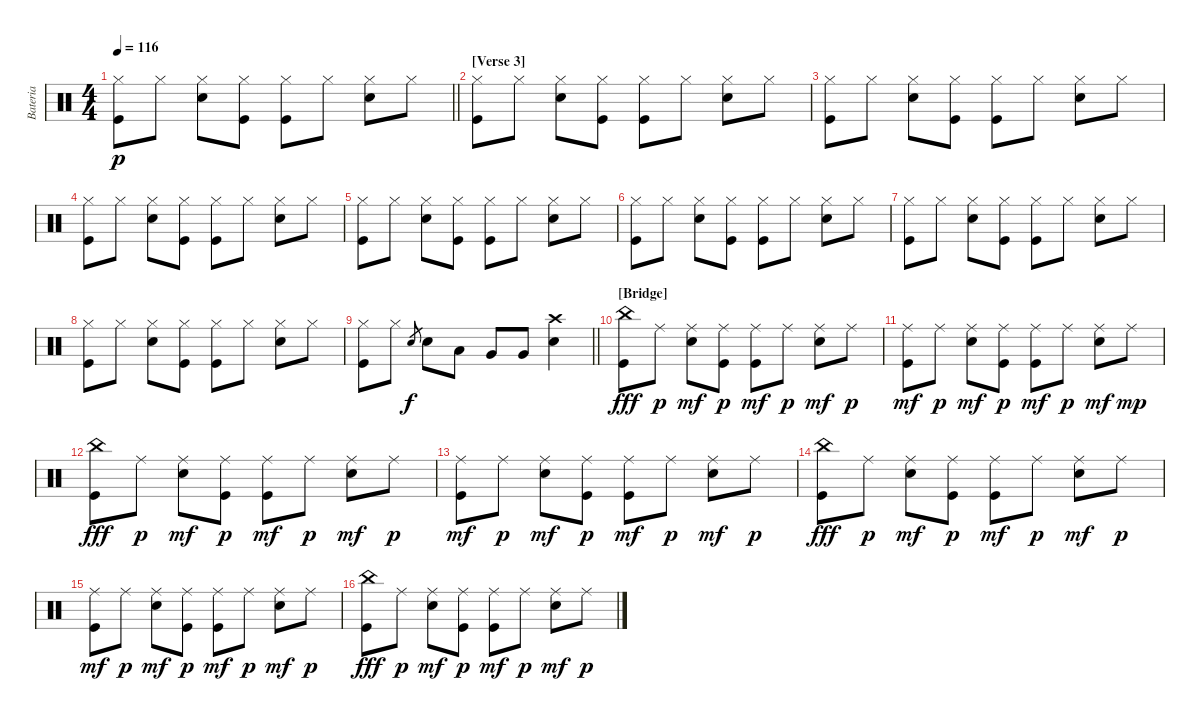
\track ("Bateria" "Bateria") {instrument percussion}
\staff {score}
\articulation defaults
\ts (4 4)
\tempo 116
\clef neutral
\barLineRight lightlight
\ks c
("Hi-Hat (closed)" "Kick (hit)").8{dy p} "Hi-Hat (closed)".8 ("Hi-Hat (closed)" "Snare (hit) 2").8 ("Hi-Hat (closed)" "Kick (hit)").8 ("Hi-Hat (closed)" "Kick (hit)").8 "Hi-Hat (closed)".8 ("Hi-Hat (closed)" "Snare (hit) 2").8 "Hi-Hat (closed)".8 |
\section ("" "[Verse 3]")
("Hi-Hat (closed)" "Kick (hit)").8 "Hi-Hat (closed)".8 ("Hi-Hat (closed)" "Snare (hit) 2").8 ("Hi-Hat (closed)" "Kick (hit)").8 ("Hi-Hat (closed)" "Kick (hit)").8 "Hi-Hat (closed)".8 ("Hi-Hat (closed)" "Snare (hit) 2").8 "Hi-Hat (closed)".8 |
("Hi-Hat (closed)" "Kick (hit)").8 "Hi-Hat (closed)".8 ("Hi-Hat (closed)" "Snare (hit) 2").8 ("Hi-Hat (closed)" "Kick (hit)").8 ("Hi-Hat (closed)" "Kick (hit)").8 "Hi-Hat (closed)".8 ("Hi-Hat (closed)" "Snare (hit) 2").8 "Hi-Hat (closed)".8 |
("Hi-Hat (closed)" "Kick (hit)").8 "Hi-Hat (closed)".8 ("Hi-Hat (closed)" "Snare (hit) 2").8 ("Hi-Hat (closed)" "Kick (hit)").8 ("Hi-Hat (closed)" "Kick (hit)").8 "Hi-Hat (closed)".8 ("Hi-Hat (closed)" "Snare (hit) 2").8 "Hi-Hat (closed)".8 |
("Hi-Hat (closed)" "Kick (hit)").8 "Hi-Hat (closed)".8 ("Hi-Hat (closed)" "Snare (hit) 2").8 ("Hi-Hat (closed)" "Kick (hit)").8 ("Hi-Hat (closed)" "Kick (hit)").8 "Hi-Hat (closed)".8 ("Hi-Hat (closed)" "Snare (hit) 2").8 "Hi-Hat (closed)".8 |
("Hi-Hat (closed)" "Kick (hit)").8 "Hi-Hat (closed)".8 ("Hi-Hat (closed)" "Snare (hit) 2").8 ("Hi-Hat (closed)" "Kick (hit)").8 ("Hi-Hat (closed)" "Kick (hit)").8 "Hi-Hat (closed)".8 ("Hi-Hat (closed)" "Snare (hit) 2").8 "Hi-Hat (closed)".8 |
("Hi-Hat (closed)" "Kick (hit)").8 "Hi-Hat (closed)".8 ("Hi-Hat (closed)" "Snare (hit) 2").8 ("Hi-Hat (closed)" "Kick (hit)").8 ("Hi-Hat (closed)" "Kick (hit)").8 "Hi-Hat (closed)".8 ("Hi-Hat (closed)" "Snare (hit) 2").8 "Hi-Hat (closed)".8 |
("Hi-Hat (closed)" "Kick (hit)").8 "Hi-Hat (closed)".8 ("Hi-Hat (closed)" "Snare (hit) 2").8 ("Hi-Hat (closed)" "Kick (hit)").8 ("Hi-Hat (closed)" "Kick (hit)").8 "Hi-Hat (closed)".8 ("Hi-Hat (closed)" "Snare (hit) 2").8 "Hi-Hat (closed)".8 |
\barLineRight lightlight
("Hi-Hat (closed)" "Kick (hit)").8 "Hi-Hat (closed)".8 "Snare (hit) 2".8{gr dy f} "Snare (hit) 2".8 "Low Tom (hit)".8 "Very Low Tom (hit)".8 "Very Low Tom (hit)".8 ("Snare (hit) 2" "Crash high (hit)").4 |
\section ("" "[Bridge]")
("China (hit)" "Kick (hit)").8{dy fff} "Ride (middle)".8{dy p} ("Ride (middle)" "Snare (hit) 2").8{dy mf} ("Ride (middle)" "Kick (hit)").8{dy p} ("Ride (middle)" "Kick (hit)").8{dy mf} "Ride (middle)".8{dy p} ("Ride (middle)" "Snare (hit) 2").8{dy mf} "Ride (middle)".8{dy p} |
("Ride (middle)" "Kick (hit)").8{dy mf} "Ride (middle)".8{dy p} ("Ride (middle)" "Snare (hit) 2").8{dy mf} ("Ride (middle)" "Kick (hit)").8{dy p} ("Ride (middle)" "Kick (hit)").8{dy mf} "Ride (middle)".8{dy p} ("Ride (middle)" "Snare (hit) 2").8{dy mf} "Ride (middle)".8{dy mp} |
("China (hit)" "Kick (hit)").8{dy fff} "Ride (middle)".8{dy p} ("Ride (middle)" "Snare (hit) 2").8{dy mf} ("Ride (middle)" "Kick (hit)").8{dy p} ("Ride (middle)" "Kick (hit)").8{dy mf} "Ride (middle)".8{dy p} ("Ride (middle)" "Snare (hit) 2").8{dy mf} "Ride (middle)".8{dy p} |
("Ride (middle)" "Kick (hit)").8{dy mf} "Ride (middle)".8{dy p} ("Ride (middle)" "Snare (hit) 2").8{dy mf} ("Ride (middle)" "Kick (hit)").8{dy p} ("Ride (middle)" "Kick (hit)").8{dy mf} "Ride (middle)".8{dy p} ("Ride (middle)" "Snare (hit) 2").8{dy mf} "Ride (middle)".8{dy p} |
("China (hit)" "Kick (hit)").8{dy fff} "Ride (middle)".8{dy p} ("Ride (middle)" "Snare (hit) 2").8{dy mf} ("Ride (middle)" "Kick (hit)").8{dy p} ("Ride (middle)" "Kick (hit)").8{dy mf} "Ride (middle)".8{dy p} ("Ride (middle)" "Snare (hit) 2").8{dy mf} "Ride (middle)".8{dy p} |
("Ride (middle)" "Kick (hit)").8{dy mf} "Ride (middle)".8{dy p} ("Ride (middle)" "Snare (hit) 2").8{dy mf} ("Ride (middle)" "Kick (hit)").8{dy p} ("Ride (middle)" "Kick (hit)").8{dy mf} "Ride (middle)".8{dy p} ("Ride (middle)" "Snare (hit) 2").8{dy mf} "Ride (middle)".8{dy p} |
("China (hit)" "Kick (hit)").8{dy fff} "Ride (middle)".8{dy p} ("Ride (middle)" "Snare (hit) 2").8{dy mf} ("Ride (middle)" "Kick (hit)").8{dy p} ("Ride (middle)" "Kick (hit)").8{dy mf} "Ride (middle)".8{dy p} ("Ride (middle)" "Snare (hit) 2").8{dy mf} "Ride (middle)".8{dy p}
